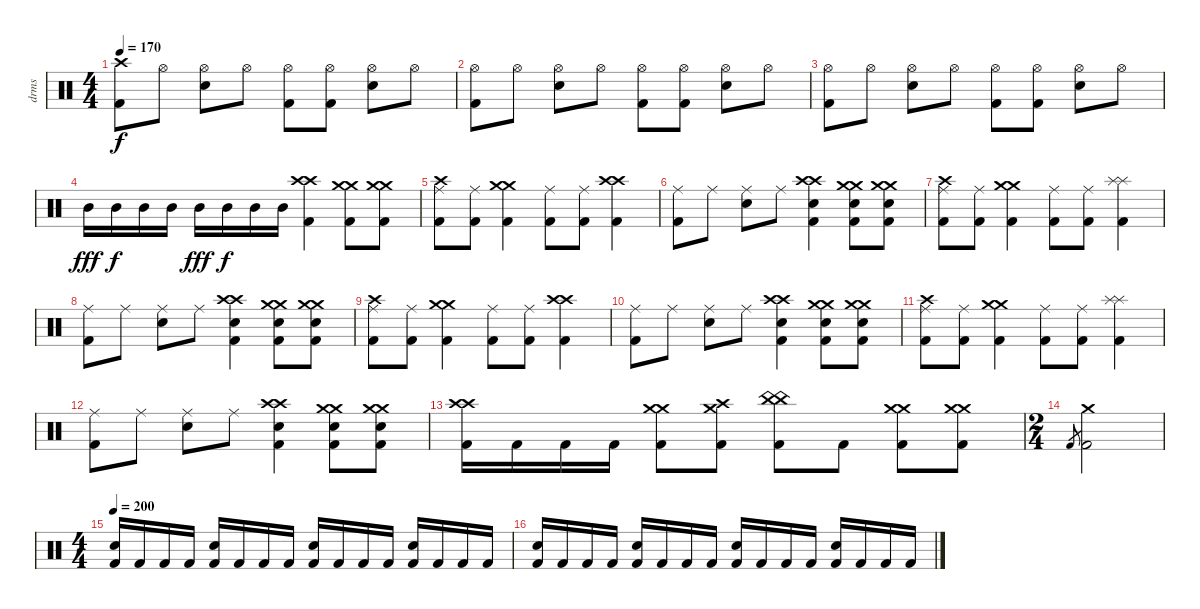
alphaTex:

\track ("drms" "drms") {instrument percussion}
\staff {score}
\articulation defaults
\ts (4 4)
\tempo 170
\clef neutral
\ks c
("Crash high (hit)" "Kick (hit) 2").8{dy f} "Hi-Hat (open)".8 ("Hi-Hat (open)" "Snare (hit) 2").8 "Hi-Hat (open)".8 ("Hi-Hat (open)" "Kick (hit) 2").8 ("Hi-Hat (open)" "Kick (hit) 2").8 ("Hi-Hat (open)" "Snare (hit) 2").8 "Hi-Hat (open)".8 |
("Hi-Hat (open)" "Kick (hit) 2").8 "Hi-Hat (open)".8 ("Hi-Hat (open)" "Snare (hit) 2").8 "Hi-Hat (open)".8 ("Hi-Hat (open)" "Kick (hit) 2").8 ("Hi-Hat (open)" "Kick (hit) 2").8 ("Hi-Hat (open)" "Snare (hit) 2").8 "Hi-Hat (open)".8 |
("Hi-Hat (open)" "Kick (hit) 2").8 "Hi-Hat (open)".8 ("Hi-Hat (open)" "Snare (hit) 2").8 "Hi-Hat (open)".8 ("Hi-Hat (open)" "Kick (hit) 2").8 ("Hi-Hat (open)" "Kick (hit) 2").8 ("Hi-Hat (open)" "Snare (hit) 2").8 "Hi-Hat (open)".8 |
"Mid Tom (hit)".16{dy fff} "Mid Tom (hit)".16{dy f} "Mid Tom (hit)".16 "Mid Tom (hit)".16 "Mid Tom (hit)".16{dy fff} "Mid Tom (hit)".16{dy f} "Mid Tom (hit)".16 "Mid Tom (hit)".16 ("Crash high (hit)" "Crash high (hit)" "Kick (hit) 2").4 ("Crash medium (hit)" "Crash medium (hit)" "Kick (hit) 2").8 ("Crash medium (hit)" "Crash medium (hit)" "Kick (hit) 2").8 |
("Crash high (hit)" "Ride (middle)" "Kick (hit) 2").8 ("Ride (middle)" "Kick (hit) 2").8 ("Crash medium (hit)" "Crash medium (hit)" "Kick (hit) 2").4 ("Ride (middle)" "Kick (hit) 2").8 ("Ride (middle)" "Kick (hit) 2").8 ("Crash high (hit)" "Crash high (hit)" "Kick (hit) 2").4 |
("Ride (middle)" "Kick (hit) 2").8 "Ride (middle)".8 ("Ride (middle)" "Snare (hit) 2").8 "Ride (middle)".8 ("Crash high (hit)" "Crash high (hit)" "Snare (hit) 2" "Kick (hit) 2").4 ("Crash medium (hit)" "Crash medium (hit)" "Snare (hit) 2" "Kick (hit) 2").8 ("Crash medium (hit)" "Crash medium (hit)" "Snare (hit) 2" "Kick (hit) 2").8 |
("Crash high (hit)" "Ride (middle)" "Kick (hit) 2").8 ("Ride (middle)" "Kick (hit) 2").8 ("Crash medium (hit)" "Crash medium (hit)" "Kick (hit) 2").4 ("Ride (middle)" "Kick (hit) 2").8 ("Ride (middle)" "Kick (hit) 2").8 ("Splash (hit)" "Splash (hit)" "Kick (hit) 2").4 |
("Ride (middle)" "Kick (hit) 2").8 "Ride (middle)".8 ("Ride (middle)" "Snare (hit) 2").8 "Ride (middle)".8 ("Crash high (hit)" "Crash high (hit)" "Snare (hit) 2" "Kick (hit) 2").4 ("Crash medium (hit)" "Crash medium (hit)" "Snare (hit) 2" "Kick (hit) 2").8 ("Crash medium (hit)" "Crash medium (hit)" "Snare (hit) 2" "Kick (hit) 2").8 |
("Crash high (hit)" "Ride (middle)" "Kick (hit) 2").8 ("Ride (middle)" "Kick (hit) 2").8 ("Crash medium (hit)" "Crash medium (hit)" "Kick (hit) 2").4 ("Ride (middle)" "Kick (hit) 2").8 ("Ride (middle)" "Kick (hit) 2").8 ("Crash high (hit)" "Crash high (hit)" "Kick (hit) 2").4 |
("Ride (middle)" "Kick (hit) 2").8 "Ride (middle)".8 ("Ride (middle)" "Snare (hit) 2").8 "Ride (middle)".8 ("Crash high (hit)" "Crash high (hit)" "Snare (hit) 2" "Kick (hit) 2").4 ("Crash medium (hit)" "Crash medium (hit)" "Snare (hit) 2" "Kick (hit) 2").8 ("Crash medium (hit)" "Crash medium (hit)" "Snare (hit) 2" "Kick (hit) 2").8 |
("Crash high (hit)" "Ride (middle)" "Kick (hit) 2").8 ("Ride (middle)" "Kick (hit) 2").8 ("Crash medium (hit)" "Crash medium (hit)" "Kick (hit) 2").4 ("Ride (middle)" "Kick (hit) 2").8 ("Ride (middle)" "Kick (hit) 2").8 ("Splash (hit)" "Splash (hit)" "Kick (hit) 2").4 |
("Ride (middle)" "Kick (hit) 2").8 "Ride (middle)".8 ("Ride (middle)" "Snare (hit) 2").8 "Ride (middle)".8 ("Crash high (hit)" "Crash high (hit)" "Snare (hit) 2" "Kick (hit) 2").4 ("Crash medium (hit)" "Crash medium (hit)" "Snare (hit) 2" "Kick (hit) 2").8 ("Crash medium (hit)" "Crash medium (hit)" "Snare (hit) 2" "Kick (hit) 2").8 |
("Crash high (hit)" "Crash high (hit)" "Kick (hit) 2").16 "Kick (hit) 2".16 "Kick (hit) 2".16 "Kick (hit) 2".16 ("Crash medium (hit)" "Crash medium (hit)" "Kick (hit) 2").8 ("Crash medium (hit)" "Crash high (hit)" "Kick (hit) 2").8 ("China (hit)" "China (hit)" "Kick (hit) 2").8 "Kick (hit) 2".8 ("Crash medium (hit)" "Crash medium (hit)" "Kick (hit) 2").8 ("Crash medium (hit)" "Crash medium (hit)" "Kick (hit) 2").8 |
\ts (2 4)
"Kick (hit) 2".8{gr} ("Crash medium (hit)" "Kick (hit) 2").2 |
\ts (4 4)
\tempo 200
("Snare (hit) 2" "Kick (hit) 2").16 "Kick (hit) 2".16 "Kick (hit) 2".16 "Kick (hit) 2".16 ("Snare (hit) 2" "Kick (hit) 2").16 "Kick (hit) 2".16 "Kick (hit) 2".16 "Kick (hit) 2".16 ("Snare (hit) 2" "Kick (hit) 2").16 "Kick (hit) 2".16 "Kick (hit) 2".16 "Kick (hit) 2".16 ("Snare (hit) 2" "Kick (hit) 2").16 "Kick (hit) 2".16 "Kick (hit) 2".16 "Kick (hit) 2".16 |
("Snare (hit) 2" "Kick (hit) 2").16 "Kick (hit) 2".16 "Kick (hit) 2".16 "Kick (hit) 2".16 ("Snare (hit) 2" "Kick (hit) 2").16 "Kick (hit) 2".16 "Kick (hit) 2".16 "Kick (hit) 2".16 ("Snare (hit) 2" "Kick (hit) 2").16 "Kick (hit) 2".16 "Kick (hit) 2".16 "Kick (hit) 2".16 ("Snare (hit) 2" "Kick (hit) 2").16 "Kick (hit) 2".16 "Kick (hit) 2".16 "Kick (hit) 2".16
